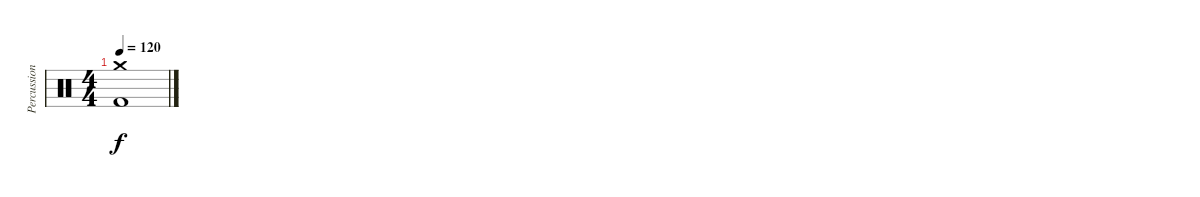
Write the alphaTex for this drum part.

\track ("Percussion" "Percussion") {instrument percussion}
\staff {score}
\articulation defaults
\ts (4 4)
\tempo 120
\clef neutral
\ks c
("Kick (hit) 2" "Crash medium (hit)").1{dy f}
